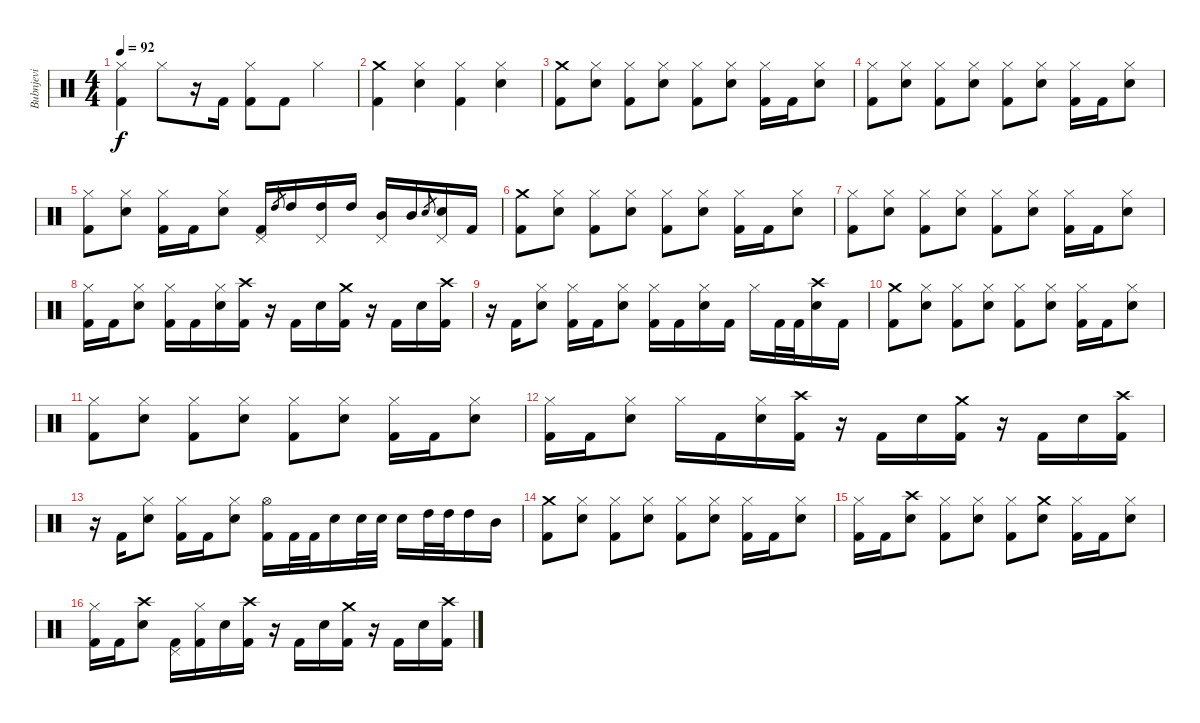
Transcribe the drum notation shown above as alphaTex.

\track ("Bubnjevi" "Bubnjevi") {instrument percussion}
\staff {score}
\articulation defaults
\ts (4 4)
\tempo 92
\clef neutral
\ks c
("Hi-Hat (closed)" "Kick (hit) 2").4{dy f} "Hi-Hat (closed)".8 r.16 "Kick (hit) 2".16 ("Hi-Hat (closed)" "Kick (hit) 2").8 "Kick (hit) 2".8 "Hi-Hat (closed)".4 |
("Crash medium (hit)" "Kick (hit) 2").4 ("Hi-Hat (closed)" "Electric Snare (hit)").4 ("Hi-Hat (closed)" "Kick (hit) 2").4 ("Hi-Hat (closed)" "Electric Snare (hit)").4 |
("Crash medium (hit)" "Kick (hit) 2").8 ("Hi-Hat (closed)" "Electric Snare (hit)").8 ("Hi-Hat (closed)" "Kick (hit) 2").8 ("Hi-Hat (closed)" "Electric Snare (hit)").8 ("Hi-Hat (closed)" "Kick (hit) 2").8 ("Hi-Hat (closed)" "Electric Snare (hit)").8 ("Hi-Hat (closed)" "Kick (hit) 2").16 "Kick (hit) 2".16 ("Hi-Hat (closed)" "Electric Snare (hit)").8 |
("Hi-Hat (closed)" "Kick (hit) 2").8 ("Hi-Hat (closed)" "Electric Snare (hit)").8 ("Hi-Hat (closed)" "Kick (hit) 2").8 ("Hi-Hat (closed)" "Electric Snare (hit)").8 ("Hi-Hat (closed)" "Kick (hit) 2").8 ("Hi-Hat (closed)" "Electric Snare (hit)").8 ("Hi-Hat (closed)" "Kick (hit) 2").16 "Kick (hit) 2".16 ("Hi-Hat (closed)" "Electric Snare (hit)").8 |
("Hi-Hat (closed)" "Kick (hit) 2").8 ("Hi-Hat (closed)" "Electric Snare (hit)").8 ("Hi-Hat (closed)" "Kick (hit) 2").16 "Kick (hit) 2".16 ("Hi-Hat (closed)" "Electric Snare (hit)").8 ("Pedal Hi-Hat (hit)" "Kick (hit) 2").16 "High Tom (hit)".8{gr} "High Tom (hit)".16 ("Pedal Hi-Hat (hit)" "High Tom (hit)").16 "High Tom (hit)".16 ("Pedal Hi-Hat (hit)" "Mid Tom (hit)").16 "Mid Tom (hit)".16 "Electric Snare (hit)".8{gr} ("Pedal Hi-Hat (hit)" "Electric Snare (hit)").16 "Kick (hit) 2".16 |
("Crash medium (hit)" "Kick (hit) 2").8 ("Hi-Hat (closed)" "Electric Snare (hit)").8 ("Hi-Hat (closed)" "Kick (hit) 2").8 ("Hi-Hat (closed)" "Electric Snare (hit)").8 ("Hi-Hat (closed)" "Kick (hit) 2").8 ("Hi-Hat (closed)" "Electric Snare (hit)").8 ("Hi-Hat (closed)" "Kick (hit) 2").16 "Kick (hit) 2".16 ("Hi-Hat (closed)" "Electric Snare (hit)").8 |
("Hi-Hat (closed)" "Kick (hit) 2").8 ("Hi-Hat (closed)" "Electric Snare (hit)").8 ("Hi-Hat (closed)" "Kick (hit) 2").8 ("Hi-Hat (closed)" "Electric Snare (hit)").8 ("Hi-Hat (closed)" "Kick (hit) 2").8 ("Hi-Hat (closed)" "Electric Snare (hit)").8 ("Hi-Hat (closed)" "Kick (hit) 2").16 "Kick (hit) 2".16 ("Hi-Hat (closed)" "Electric Snare (hit)").8 |
("Hi-Hat (closed)" "Kick (hit) 2").16 "Kick (hit) 2".16 ("Hi-Hat (closed)" "Electric Snare (hit)").8 ("Hi-Hat (closed)" "Kick (hit) 2").16 "Kick (hit) 2".16 ("Hi-Hat (closed)" "Electric Snare (hit)").16 ("Crash high (hit)" "Kick (hit) 2").16 r.16 "Kick (hit) 2".16 "Electric Snare (hit)".16 ("Crash medium (hit)" "Kick (hit) 2").16 r.16 "Kick (hit) 2".16 "Electric Snare (hit)".16 ("Crash high (hit)" "Kick (hit) 2").16 |
r.16 "Kick (hit) 2".16 ("Hi-Hat (closed)" "Electric Snare (hit)").8 ("Hi-Hat (closed)" "Kick (hit) 2").16 "Kick (hit) 2".16 ("Hi-Hat (closed)" "Electric Snare (hit)").8 ("Hi-Hat (closed)" "Kick (hit) 2").16 "Kick (hit) 2".16 ("Hi-Hat (closed)" "Electric Snare (hit)").16 "Kick (hit) 2".16 "Hi-Hat (closed)".16 "Kick (hit) 2".32 "Kick (hit) 2".32 ("Crash high (hit)" "Electric Snare (hit)").16 "Kick (hit) 2".16 |
("Crash medium (hit)" "Kick (hit) 2").8 ("Hi-Hat (closed)" "Electric Snare (hit)").8 ("Hi-Hat (closed)" "Kick (hit) 2").8 ("Hi-Hat (closed)" "Electric Snare (hit)").8 ("Hi-Hat (closed)" "Kick (hit) 2").8 ("Hi-Hat (closed)" "Electric Snare (hit)").8 ("Hi-Hat (closed)" "Kick (hit) 2").16 "Kick (hit) 2".16 ("Hi-Hat (closed)" "Electric Snare (hit)").8 |
("Hi-Hat (closed)" "Kick (hit) 2").8 ("Hi-Hat (closed)" "Electric Snare (hit)").8 ("Hi-Hat (closed)" "Kick (hit) 2").8 ("Hi-Hat (closed)" "Electric Snare (hit)").8 ("Hi-Hat (closed)" "Kick (hit) 2").8 ("Hi-Hat (closed)" "Electric Snare (hit)").8 ("Hi-Hat (closed)" "Kick (hit) 2").16 "Kick (hit) 2".16 ("Hi-Hat (closed)" "Electric Snare (hit)").8 |
("Hi-Hat (closed)" "Kick (hit) 2").16 "Kick (hit) 2".16 ("Hi-Hat (closed)" "Electric Snare (hit)").8 "Hi-Hat (closed)".16 "Kick (hit) 2".16 ("Hi-Hat (closed)" "Electric Snare (hit)").16 ("Crash high (hit)" "Kick (hit) 2").16 r.16 "Kick (hit) 2".16 "Electric Snare (hit)".16 ("Crash medium (hit)" "Kick (hit) 2").16 r.16 "Kick (hit) 2".16 "Electric Snare (hit)".16 ("Crash high (hit)" "Kick (hit) 2").16 |
r.16 "Kick (hit) 2".16 ("Hi-Hat (closed)" "Electric Snare (hit)").8 ("Hi-Hat (closed)" "Kick (hit) 2").16 "Kick (hit) 2".16 ("Hi-Hat (closed)" "Electric Snare (hit)").8 ("Hi-Hat (open)" "Kick (hit) 2").16 "Kick (hit) 2".32 "Kick (hit) 2".32 "Electric Snare (hit)".16 "Electric Snare (hit)".32 "Electric Snare (hit)".32 "Electric Snare (hit)".16 "High Tom (hit)".32 "High Tom (hit)".32 "High Tom (hit)".16 "Mid Tom (hit)".16 |
("Crash medium (hit)" "Kick (hit) 2").8 ("Hi-Hat (closed)" "Electric Snare (hit)").8 ("Hi-Hat (closed)" "Kick (hit) 2").8 ("Hi-Hat (closed)" "Electric Snare (hit)").8 ("Hi-Hat (closed)" "Kick (hit) 2").8 ("Hi-Hat (closed)" "Electric Snare (hit)").8 ("Hi-Hat (closed)" "Kick (hit) 2").16 "Kick (hit) 2".16 ("Hi-Hat (closed)" "Electric Snare (hit)").8 |
("Hi-Hat (closed)" "Kick (hit) 2").16 "Kick (hit) 2".16 ("Crash high (hit)" "Electric Snare (hit)").8 ("Hi-Hat (closed)" "Kick (hit) 2").8 ("Hi-Hat (closed)" "Electric Snare (hit)").8 ("Hi-Hat (closed)" "Kick (hit) 2").8 ("Crash medium (hit)" "Electric Snare (hit)").8 ("Hi-Hat (closed)" "Kick (hit) 2").16 "Kick (hit) 2".16 ("Hi-Hat (closed)" "Electric Snare (hit)").8 |
("Hi-Hat (closed)" "Kick (hit) 2").16 "Kick (hit) 2".16 ("Crash high (hit)" "Electric Snare (hit)").8 ("Pedal Hi-Hat (hit)" "Kick (hit) 2").16 ("Hi-Hat (closed)" "Kick (hit) 2").16 "Electric Snare (hit)".16 ("Crash high (hit)" "Kick (hit) 2").16 r.16 "Kick (hit) 2".16 "Electric Snare (hit)".16 ("Crash medium (hit)" "Kick (hit) 2").16 r.16 "Kick (hit) 2".16 "Electric Snare (hit)".16 ("Crash high (hit)" "Kick (hit) 2").16
